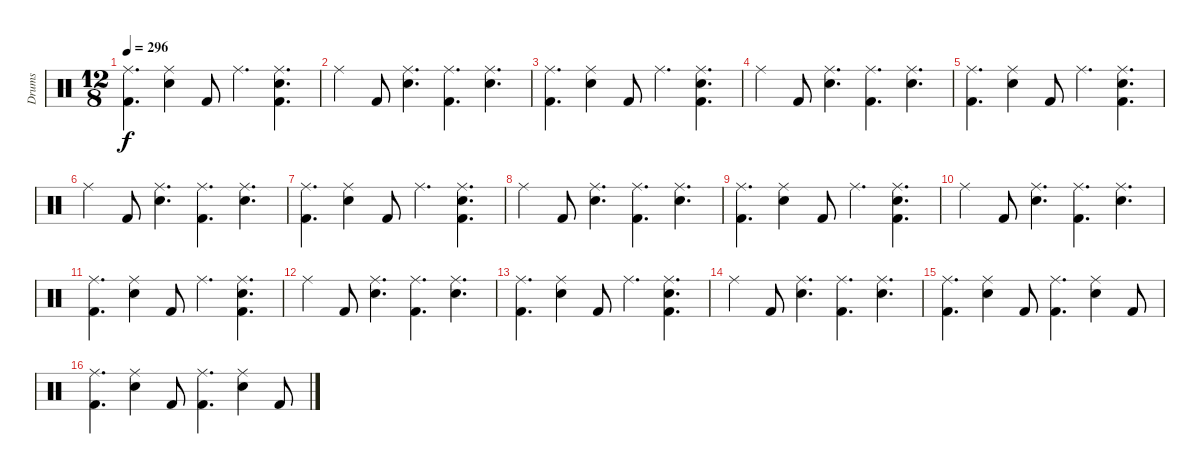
\track ("Drums" "Drums") {instrument percussion}
\staff {score}
\articulation defaults
\ts (12 8)
\tempo 296
\clef neutral
\ks c
("Ride (middle)" "Kick (hit) 2").4{d dy f} ("Ride (middle)" "Electric Snare (hit)").4 "Kick (hit) 2".8 "Ride (middle)".4{d} ("Ride (middle)" "Electric Snare (hit)" "Kick (hit) 2").4{d} |
"Ride (middle)".4 "Kick (hit) 2".8 ("Ride (middle)" "Electric Snare (hit)").4{d} ("Ride (middle)" "Kick (hit) 2").4{d} ("Ride (middle)" "Electric Snare (hit)").4{d} |
("Ride (middle)" "Kick (hit) 2").4{d} ("Ride (middle)" "Electric Snare (hit)").4 "Kick (hit) 2".8 "Ride (middle)".4{d} ("Ride (middle)" "Electric Snare (hit)" "Kick (hit) 2").4{d} |
"Ride (middle)".4 "Kick (hit) 2".8 ("Ride (middle)" "Electric Snare (hit)").4{d} ("Ride (middle)" "Kick (hit) 2").4{d} ("Ride (middle)" "Electric Snare (hit)").4{d} |
("Ride (middle)" "Kick (hit) 2").4{d} ("Ride (middle)" "Electric Snare (hit)").4 "Kick (hit) 2".8 "Ride (middle)".4{d} ("Ride (middle)" "Electric Snare (hit)" "Kick (hit) 2").4{d} |
"Ride (middle)".4 "Kick (hit) 2".8 ("Ride (middle)" "Electric Snare (hit)").4{d} ("Ride (middle)" "Kick (hit) 2").4{d} ("Ride (middle)" "Electric Snare (hit)").4{d} |
("Ride (middle)" "Kick (hit) 2").4{d} ("Ride (middle)" "Electric Snare (hit)").4 "Kick (hit) 2".8 "Ride (middle)".4{d} ("Ride (middle)" "Electric Snare (hit)" "Kick (hit) 2").4{d} |
"Ride (middle)".4 "Kick (hit) 2".8 ("Ride (middle)" "Electric Snare (hit)").4{d} ("Ride (middle)" "Kick (hit) 2").4{d} ("Ride (middle)" "Electric Snare (hit)").4{d} |
("Ride (middle)" "Kick (hit) 2").4{d} ("Ride (middle)" "Electric Snare (hit)").4 "Kick (hit) 2".8 "Ride (middle)".4{d} ("Ride (middle)" "Electric Snare (hit)" "Kick (hit) 2").4{d} |
"Ride (middle)".4 "Kick (hit) 2".8 ("Ride (middle)" "Electric Snare (hit)").4{d} ("Ride (middle)" "Kick (hit) 2").4{d} ("Ride (middle)" "Electric Snare (hit)").4{d} |
("Ride (middle)" "Kick (hit) 2").4{d} ("Ride (middle)" "Electric Snare (hit)").4 "Kick (hit) 2".8 "Ride (middle)".4{d} ("Ride (middle)" "Electric Snare (hit)" "Kick (hit) 2").4{d} |
"Ride (middle)".4 "Kick (hit) 2".8 ("Ride (middle)" "Electric Snare (hit)").4{d} ("Ride (middle)" "Kick (hit) 2").4{d} ("Ride (middle)" "Electric Snare (hit)").4{d} |
("Ride (middle)" "Kick (hit) 2").4{d} ("Ride (middle)" "Electric Snare (hit)").4 "Kick (hit) 2".8 "Ride (middle)".4{d} ("Ride (middle)" "Electric Snare (hit)" "Kick (hit) 2").4{d} |
"Ride (middle)".4 "Kick (hit) 2".8 ("Ride (middle)" "Electric Snare (hit)").4{d} ("Ride (middle)" "Kick (hit) 2").4{d} ("Ride (middle)" "Electric Snare (hit)").4{d} |
("Ride (middle)" "Kick (hit) 2").4{d} ("Ride (middle)" "Electric Snare (hit)").4 "Kick (hit) 2".8 ("Ride (middle)" "Kick (hit) 2").4{d} ("Ride (middle)" "Electric Snare (hit)").4 "Kick (hit) 2".8 |
("Ride (middle)" "Kick (hit) 2").4{d} ("Ride (middle)" "Electric Snare (hit)").4 "Kick (hit) 2".8 ("Ride (middle)" "Kick (hit) 2").4{d} ("Ride (middle)" "Electric Snare (hit)").4 "Kick (hit) 2".8
